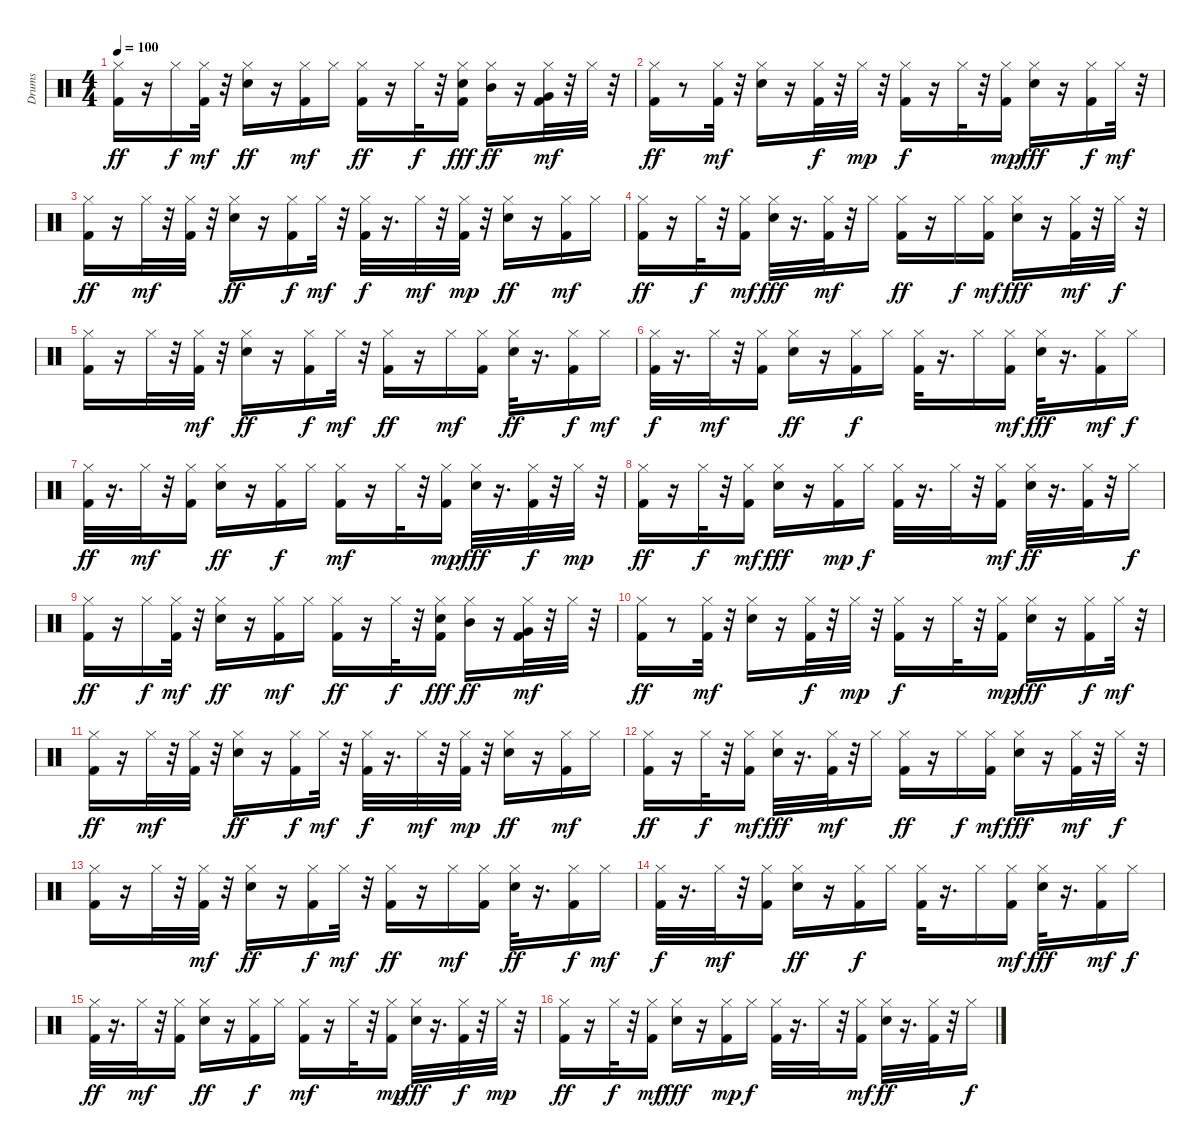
\track ("Drums" "Drums") {instrument percussion}
\staff {score}
\articulation defaults
\ts (4 4)
\tempo 100
\clef neutral
\ks c
("Hi-Hat (closed)" "Kick (hit) 2").16{dy ff} r.16 "Hi-Hat (closed)".16{dy f} ("Kick (hit) 2" "Hi-Hat (closed)").32{dy mf} r.32 ("Hi-Hat (closed)" "Snare (hit) 2").16{dy ff} r.16 ("Hi-Hat (closed)" "Kick (hit) 2").16{dy mf} "Hi-Hat (closed)".16 ("Hi-Hat (closed)" "Kick (hit) 2").16{dy ff} r.16 "Hi-Hat (closed)".32{dy f} r.32 ("Hi-Hat (closed)" "Kick (hit) 2" "Snare (hit) 2").16{dy fff} ("Hi-Hat (closed)" "Mid Tom (hit)").16{dy ff} r.16 ("Kick (hit) 2" "Hi-Hat (closed)" "Very Low Tom (hit)").32{dy mf} r.32 "Hi-Hat (closed)".32 r.32 |
("Kick (hit) 2" "Hi-Hat (closed)").16{dy ff} r.8 ("Hi-Hat (closed)" "Kick (hit) 2").32{dy mf} r.32 ("Snare (hit) 2" "Hi-Hat (closed)").16 r.16 ("Kick (hit) 2" "Hi-Hat (closed)").32{dy f} r.32 "Hi-Hat (closed)".32{dy mp} r.32 ("Kick (hit) 2" "Hi-Hat (closed)").16{dy f} r.16 "Hi-Hat (closed)".32 r.32 ("Kick (hit) 2" "Hi-Hat (closed)").16{dy mp} ("Hi-Hat (closed)" "Snare (hit) 2").16{dy fff} r.16 ("Kick (hit) 2" "Hi-Hat (closed)").16{dy f} "Hi-Hat (closed)".32{dy mf} r.32 |
("Kick (hit) 2" "Hi-Hat (closed)").16{dy ff} r.16 "Hi-Hat (closed)".32{dy mf} r.32 ("Kick (hit) 2" "Hi-Hat (closed)").32 r.32 ("Hi-Hat (closed)" "Snare (hit) 2").16{dy ff} r.16 ("Kick (hit) 2" "Hi-Hat (closed)").16{dy f} "Hi-Hat (closed)".32{dy mf} r.32 ("Kick (hit) 2" "Hi-Hat (closed)").32{dy f} r.16{d} "Hi-Hat (closed)".32{dy mf} r.32 ("Kick (hit) 2" "Hi-Hat (closed)").32{dy mp} r.32 ("Hi-Hat (closed)" "Snare (hit) 2").16{dy ff} r.16 ("Hi-Hat (closed)" "Kick (hit) 2").16{dy mf} "Hi-Hat (closed)".16 |
("Hi-Hat (closed)" "Kick (hit) 2").16{dy ff} r.16 "Hi-Hat (closed)".32{dy f} r.32 ("Kick (hit) 2" "Hi-Hat (closed)").16{dy mf} ("Hi-Hat (closed)" "Snare (hit) 2").32{dy fff} r.16{d} ("Kick (hit) 2" "Hi-Hat (closed)").32{dy mf} r.32 "Hi-Hat (closed)".16 ("Hi-Hat (closed)" "Kick (hit) 2").16{dy ff} r.16 "Hi-Hat (closed)".16{dy f} ("Kick (hit) 2" "Hi-Hat (closed)").16{dy mf} ("Hi-Hat (closed)" "Snare (hit) 2").16{dy fff} r.16 ("Kick (hit) 2" "Hi-Hat (closed)").32{dy mf} r.32 "Hi-Hat (closed)".32{dy f} r.32 |
("Hi-Hat (closed)" "Kick (hit) 2").16 r.16 "Hi-Hat (closed)".32 r.32 ("Kick (hit) 2" "Hi-Hat (closed)").32{dy mf} r.32 ("Hi-Hat (closed)" "Snare (hit) 2").16{dy ff} r.16 ("Kick (hit) 2" "Hi-Hat (closed)").16{dy f} "Hi-Hat (closed)".32{dy mf} r.32 ("Kick (hit) 2" "Hi-Hat (closed)").16{dy ff} r.16 "Hi-Hat (closed)".16{dy mf} ("Kick (hit) 2" "Hi-Hat (closed)").16 ("Hi-Hat (closed)" "Snare (hit) 2").32{dy ff} r.16{d} ("Kick (hit) 2" "Hi-Hat (closed)").16{dy f} "Hi-Hat (closed)".16{dy mf} |
("Kick (hit) 2" "Hi-Hat (closed)").32{dy f} r.16{d} "Hi-Hat (closed)".32{dy mf} r.32 ("Kick (hit) 2" "Hi-Hat (closed)").16 ("Hi-Hat (closed)" "Snare (hit) 2").16{dy ff} r.16 ("Kick (hit) 2" "Hi-Hat (closed)").16{dy f} "Hi-Hat (closed)".16 ("Kick (hit) 2" "Hi-Hat (closed)").32 r.16{d} "Hi-Hat (closed)".16 ("Kick (hit) 2" "Hi-Hat (closed)").16{dy mf} ("Hi-Hat (closed)" "Snare (hit) 2").32{dy fff} r.16{d} ("Kick (hit) 2" "Hi-Hat (closed)").16{dy mf} "Hi-Hat (closed)".16{dy f} |
("Kick (hit) 2" "Hi-Hat (closed)").32{dy ff} r.16{d} "Hi-Hat (closed)".32{dy mf} r.32 ("Kick (hit) 2" "Hi-Hat (closed)").16 ("Hi-Hat (closed)" "Snare (hit) 2").16{dy ff} r.16 ("Kick (hit) 2" "Hi-Hat (closed)").16{dy f} "Hi-Hat (closed)".16 ("Hi-Hat (closed)" "Kick (hit) 2").16{dy mf} r.16 "Hi-Hat (closed)".32 r.32 ("Kick (hit) 2" "Hi-Hat (closed)").16{dy mp} ("Hi-Hat (closed)" "Snare (hit) 2").32{dy fff} r.16{d} ("Kick (hit) 2" "Hi-Hat (closed)").32{dy f} r.32 "Hi-Hat (closed)".32{dy mp} r.32 |
("Kick (hit) 2" "Hi-Hat (closed)").16{dy ff} r.16 "Hi-Hat (closed)".32{dy f} r.32 ("Hi-Hat (closed)" "Kick (hit) 2").16{dy mf} ("Hi-Hat (closed)" "Snare (hit) 2").16{dy fff} r.16 ("Kick (hit) 2" "Hi-Hat (closed)").16{dy mp} "Hi-Hat (closed)".16{dy f} ("Kick (hit) 2" "Hi-Hat (closed)").32 r.16{d} "Hi-Hat (closed)".32 r.32 ("Kick (hit) 2" "Hi-Hat (closed)").16{dy mf} ("Hi-Hat (closed)" "Snare (hit) 2").32{dy ff} r.16{d} ("Kick (hit) 2" "Hi-Hat (closed)").32 r.32 "Hi-Hat (closed)".16{dy f} |
("Hi-Hat (closed)" "Kick (hit) 2").16{dy ff} r.16 "Hi-Hat (closed)".16{dy f} ("Kick (hit) 2" "Hi-Hat (closed)").32{dy mf} r.32 ("Hi-Hat (closed)" "Snare (hit) 2").16{dy ff} r.16 ("Hi-Hat (closed)" "Kick (hit) 2").16{dy mf} "Hi-Hat (closed)".16 ("Hi-Hat (closed)" "Kick (hit) 2").16{dy ff} r.16 "Hi-Hat (closed)".32{dy f} r.32 ("Hi-Hat (closed)" "Kick (hit) 2" "Snare (hit) 2").16{dy fff} ("Hi-Hat (closed)" "Mid Tom (hit)").16{dy ff} r.16 ("Kick (hit) 2" "Hi-Hat (closed)" "Very Low Tom (hit)").32{dy mf} r.32 "Hi-Hat (closed)".32 r.32 |
("Kick (hit) 2" "Hi-Hat (closed)").16{dy ff} r.8 ("Hi-Hat (closed)" "Kick (hit) 2").32{dy mf} r.32 ("Snare (hit) 2" "Hi-Hat (closed)").16 r.16 ("Kick (hit) 2" "Hi-Hat (closed)").32{dy f} r.32 "Hi-Hat (closed)".32{dy mp} r.32 ("Kick (hit) 2" "Hi-Hat (closed)").16{dy f} r.16 "Hi-Hat (closed)".32 r.32 ("Kick (hit) 2" "Hi-Hat (closed)").16{dy mp} ("Hi-Hat (closed)" "Snare (hit) 2").16{dy fff} r.16 ("Kick (hit) 2" "Hi-Hat (closed)").16{dy f} "Hi-Hat (closed)".32{dy mf} r.32 |
("Kick (hit) 2" "Hi-Hat (closed)").16{dy ff} r.16 "Hi-Hat (closed)".32{dy mf} r.32 ("Kick (hit) 2" "Hi-Hat (closed)").32 r.32 ("Hi-Hat (closed)" "Snare (hit) 2").16{dy ff} r.16 ("Kick (hit) 2" "Hi-Hat (closed)").16{dy f} "Hi-Hat (closed)".32{dy mf} r.32 ("Kick (hit) 2" "Hi-Hat (closed)").32{dy f} r.16{d} "Hi-Hat (closed)".32{dy mf} r.32 ("Kick (hit) 2" "Hi-Hat (closed)").32{dy mp} r.32 ("Hi-Hat (closed)" "Snare (hit) 2").16{dy ff} r.16 ("Hi-Hat (closed)" "Kick (hit) 2").16{dy mf} "Hi-Hat (closed)".16 |
("Hi-Hat (closed)" "Kick (hit) 2").16{dy ff} r.16 "Hi-Hat (closed)".32{dy f} r.32 ("Kick (hit) 2" "Hi-Hat (closed)").16{dy mf} ("Hi-Hat (closed)" "Snare (hit) 2").32{dy fff} r.16{d} ("Kick (hit) 2" "Hi-Hat (closed)").32{dy mf} r.32 "Hi-Hat (closed)".16 ("Hi-Hat (closed)" "Kick (hit) 2").16{dy ff} r.16 "Hi-Hat (closed)".16{dy f} ("Kick (hit) 2" "Hi-Hat (closed)").16{dy mf} ("Hi-Hat (closed)" "Snare (hit) 2").16{dy fff} r.16 ("Kick (hit) 2" "Hi-Hat (closed)").32{dy mf} r.32 "Hi-Hat (closed)".32{dy f} r.32 |
("Hi-Hat (closed)" "Kick (hit) 2").16 r.16 "Hi-Hat (closed)".32 r.32 ("Kick (hit) 2" "Hi-Hat (closed)").32{dy mf} r.32 ("Hi-Hat (closed)" "Snare (hit) 2").16{dy ff} r.16 ("Kick (hit) 2" "Hi-Hat (closed)").16{dy f} "Hi-Hat (closed)".32{dy mf} r.32 ("Kick (hit) 2" "Hi-Hat (closed)").16{dy ff} r.16 "Hi-Hat (closed)".16{dy mf} ("Kick (hit) 2" "Hi-Hat (closed)").16 ("Hi-Hat (closed)" "Snare (hit) 2").32{dy ff} r.16{d} ("Kick (hit) 2" "Hi-Hat (closed)").16{dy f} "Hi-Hat (closed)".16{dy mf} |
("Kick (hit) 2" "Hi-Hat (closed)").32{dy f} r.16{d} "Hi-Hat (closed)".32{dy mf} r.32 ("Kick (hit) 2" "Hi-Hat (closed)").16 ("Hi-Hat (closed)" "Snare (hit) 2").16{dy ff} r.16 ("Kick (hit) 2" "Hi-Hat (closed)").16{dy f} "Hi-Hat (closed)".16 ("Kick (hit) 2" "Hi-Hat (closed)").32 r.16{d} "Hi-Hat (closed)".16 ("Kick (hit) 2" "Hi-Hat (closed)").16{dy mf} ("Hi-Hat (closed)" "Snare (hit) 2").32{dy fff} r.16{d} ("Kick (hit) 2" "Hi-Hat (closed)").16{dy mf} "Hi-Hat (closed)".16{dy f} |
("Kick (hit) 2" "Hi-Hat (closed)").32{dy ff} r.16{d} "Hi-Hat (closed)".32{dy mf} r.32 ("Kick (hit) 2" "Hi-Hat (closed)").16 ("Hi-Hat (closed)" "Snare (hit) 2").16{dy ff} r.16 ("Kick (hit) 2" "Hi-Hat (closed)").16{dy f} "Hi-Hat (closed)".16 ("Hi-Hat (closed)" "Kick (hit) 2").16{dy mf} r.16 "Hi-Hat (closed)".32 r.32 ("Kick (hit) 2" "Hi-Hat (closed)").16{dy mp} ("Hi-Hat (closed)" "Snare (hit) 2").32{dy fff} r.16{d} ("Kick (hit) 2" "Hi-Hat (closed)").32{dy f} r.32 "Hi-Hat (closed)".32{dy mp} r.32 |
("Kick (hit) 2" "Hi-Hat (closed)").16{dy ff} r.16 "Hi-Hat (closed)".32{dy f} r.32 ("Hi-Hat (closed)" "Kick (hit) 2").16{dy mf} ("Hi-Hat (closed)" "Snare (hit) 2").16{dy fff} r.16 ("Kick (hit) 2" "Hi-Hat (closed)").16{dy mp} "Hi-Hat (closed)".16{dy f} ("Kick (hit) 2" "Hi-Hat (closed)").32 r.16{d} "Hi-Hat (closed)".32 r.32 ("Kick (hit) 2" "Hi-Hat (closed)").16{dy mf} ("Hi-Hat (closed)" "Snare (hit) 2").32{dy ff} r.16{d} ("Kick (hit) 2" "Hi-Hat (closed)").32 r.32 "Hi-Hat (closed)".16{dy f}
